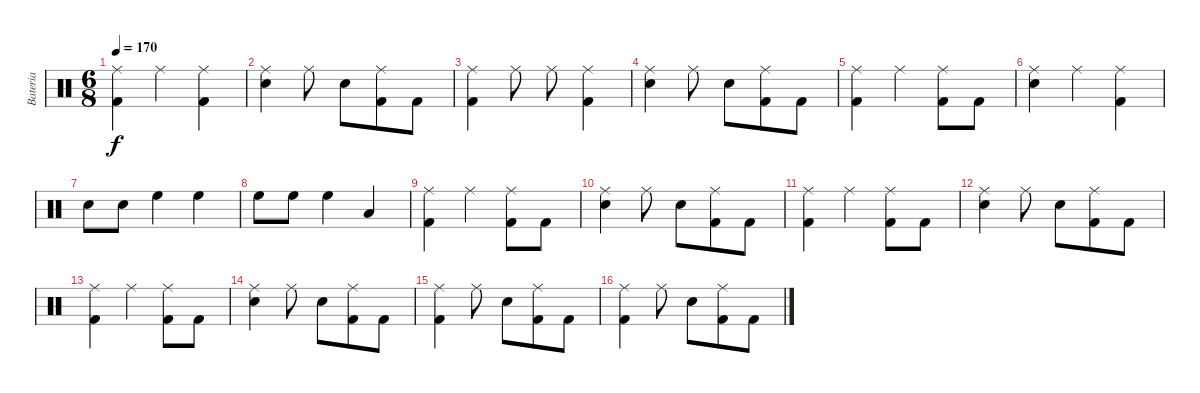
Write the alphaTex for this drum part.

\track ("Bateria" "Bateria") {instrument percussion}
\staff {score}
\articulation defaults
\ts (6 8)
\tempo 170
\clef neutral
\ks c
("Ride (middle)" "Kick (hit) 2").4{dy f} "Ride (middle)".4 ("Ride (middle)" "Kick (hit) 2").4 |
("Ride (middle)" "Snare (hit) 2").4 "Ride (middle)".8 "Snare (hit) 2".8 ("Ride (middle)" "Kick (hit) 2").8 "Kick (hit) 2".8 |
("Ride (middle)" "Kick (hit) 2").4 "Ride (middle)".8 "Ride (middle)".8 ("Ride (middle)" "Kick (hit) 2").4 |
("Ride (middle)" "Snare (hit) 2").4 "Ride (middle)".8 "Snare (hit) 2".8 ("Ride (middle)" "Kick (hit) 2").8 "Kick (hit) 2".8 |
("Ride (middle)" "Kick (hit) 2").4 "Ride (middle)".4 ("Ride (middle)" "Kick (hit) 2").8 "Kick (hit) 2".8 |
("Ride (middle)" "Snare (hit) 2").4 "Ride (middle)".4 ("Ride (middle)" "Kick (hit) 2").4 |
"Snare (hit) 2".8 "Snare (hit) 2".8 "High Floor Tom (hit)".4 "High Floor Tom (hit)".4 |
"High Floor Tom (hit)".8 "High Floor Tom (hit)".8 "High Floor Tom (hit)".4 "Low Tom (hit)".4 |
("Ride (middle)" "Kick (hit) 2").4 "Ride (middle)".4 ("Ride (middle)" "Kick (hit) 2").8 "Kick (hit) 2".8 |
("Ride (middle)" "Snare (hit) 2").4 "Ride (middle)".8 "Snare (hit) 2".8 ("Ride (middle)" "Kick (hit) 2").8 "Kick (hit) 2".8 |
("Ride (middle)" "Kick (hit) 2").4 "Ride (middle)".4 ("Ride (middle)" "Kick (hit) 2").8 "Kick (hit) 2".8 |
("Ride (middle)" "Snare (hit) 2").4 "Ride (middle)".8 "Snare (hit) 2".8 ("Ride (middle)" "Kick (hit) 2").8 "Kick (hit) 2".8 |
("Ride (middle)" "Kick (hit) 2").4 "Ride (middle)".4 ("Ride (middle)" "Kick (hit) 2").8 "Kick (hit) 2".8 |
("Ride (middle)" "Snare (hit) 2").4 "Ride (middle)".8 "Snare (hit) 2".8 ("Ride (middle)" "Kick (hit) 2").8 "Kick (hit) 2".8 |
("Ride (middle)" "Kick (hit) 2").4 "Ride (middle)".8 "Snare (hit) 2".8 ("Ride (middle)" "Kick (hit) 2").8 "Kick (hit) 2".8 |
("Ride (middle)" "Kick (hit) 2").4 "Ride (middle)".8 "Snare (hit) 2".8 ("Ride (middle)" "Kick (hit) 2").8 "Kick (hit) 2".8
